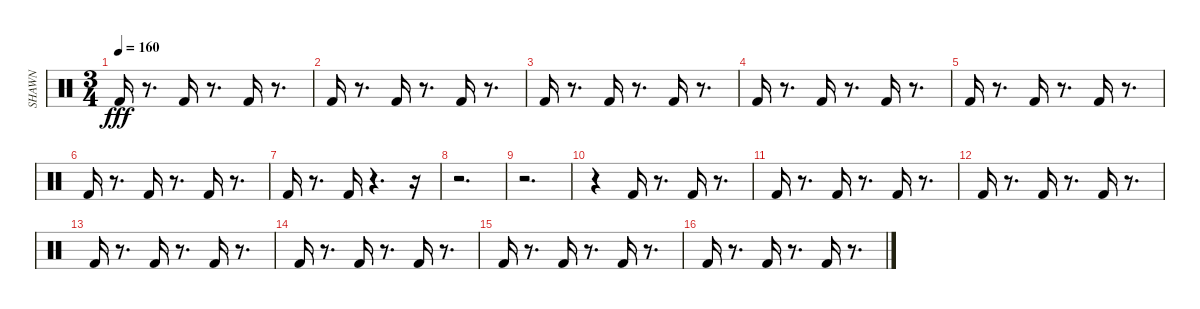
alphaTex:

\track ("SHAWN" "SHAWN") {instrument percussion}
\staff {score}
\articulation defaults
\ts (3 4)
\tempo 160
\clef neutral
\ks c "Kick (hit) 2".16{dy fff}
r.8{d} "Kick (hit) 2".16 r.8{d} "Kick (hit) 2".16 r.8{d} |
"Kick (hit) 2".16 r.8{d} "Kick (hit) 2".16 r.8{d} "Kick (hit) 2".16 r.8{d} |
"Kick (hit) 2".16 r.8{d} "Kick (hit) 2".16 r.8{d} "Kick (hit) 2".16 r.8{d} |
"Kick (hit) 2".16 r.8{d} "Kick (hit) 2".16 r.8{d} "Kick (hit) 2".16 r.8{d} |
"Kick (hit) 2".16 r.8{d} "Kick (hit) 2".16 r.8{d} "Kick (hit) 2".16 r.8{d} |
"Kick (hit) 2".16 r.8{d} "Kick (hit) 2".16 r.8{d} "Kick (hit) 2".16 r.8{d} |
"Kick (hit) 2".16 r.8{d} "Kick (hit) 2".16 r.4{d} r.16 |
r.2{d} |
r.2{d} |
r.4 "Kick (hit) 2".16 r.8{d} "Kick (hit) 2".16 r.8{d} |
"Kick (hit) 2".16 r.8{d} "Kick (hit) 2".16 r.8{d} "Kick (hit) 2".16 r.8{d} |
"Kick (hit) 2".16 r.8{d} "Kick (hit) 2".16 r.8{d} "Kick (hit) 2".16 r.8{d} |
"Kick (hit) 2".16 r.8{d} "Kick (hit) 2".16 r.8{d} "Kick (hit) 2".16 r.8{d} |
"Kick (hit) 2".16 r.8{d} "Kick (hit) 2".16 r.8{d} "Kick (hit) 2".16 r.8{d} |
"Kick (hit) 2".16 r.8{d} "Kick (hit) 2".16 r.8{d} "Kick (hit) 2".16 r.8{d} |
"Kick (hit) 2".16 r.8{d} "Kick (hit) 2".16 r.8{d} "Kick (hit) 2".16 r.8{d}
